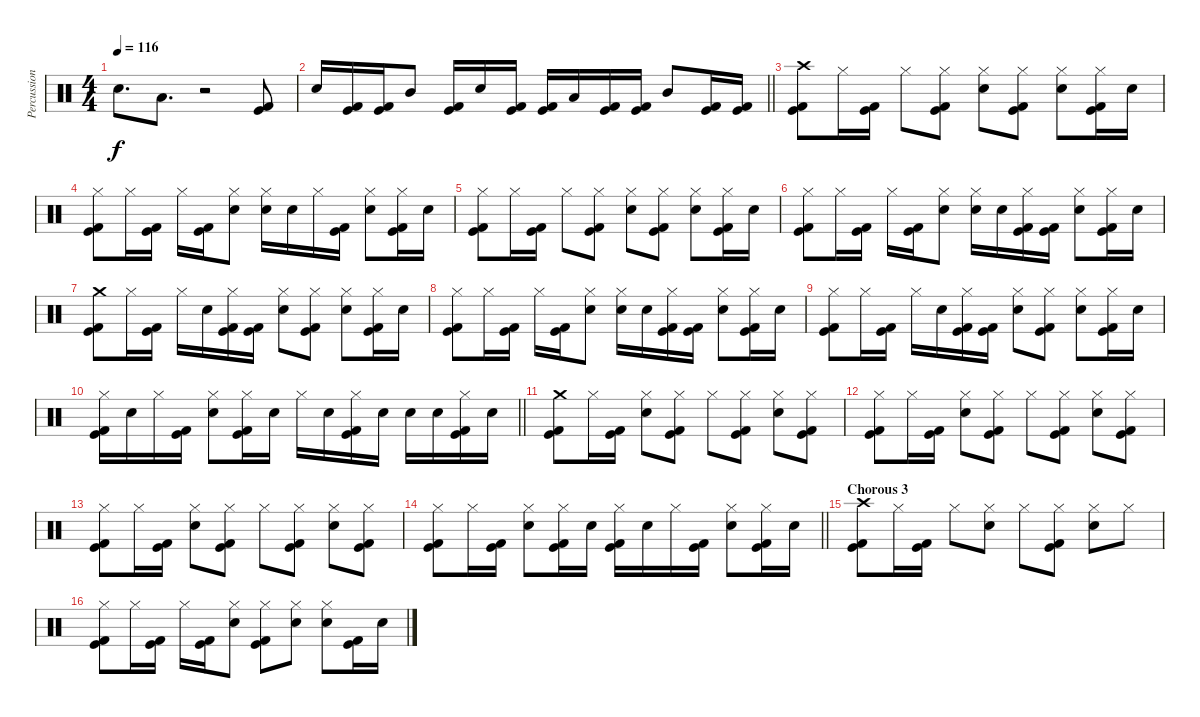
\track ("Percussion" "Percussion") {instrument percussion}
\staff {score}
\articulation defaults
\ts (4 4)
\tempo 116
\clef neutral
\ks c "Electric Snare (hit)".8{d dy f} "Low Tom (hit)".8{d}
r.2 ("Kick (hit)" "Kick (hit) 2").8 |
\barLineRight lightlight "Electric Snare (hit)".16
("Kick (hit)" "Kick (hit) 2").16 ("Kick (hit)" "Kick (hit) 2").16 "Mid Tom (hit)".8 ("Kick (hit)" "Kick (hit) 2").16 "Electric Snare (hit)".16 ("Kick (hit)" "Kick (hit) 2").16 ("Kick (hit)" "Kick (hit) 2").16 "Low Tom (hit)".16 ("Kick (hit)" "Kick (hit) 2").16 ("Kick (hit)" "Kick (hit) 2").16 "Mid Tom (hit)".8 ("Kick (hit)" "Kick (hit) 2").16 ("Kick (hit)" "Kick (hit) 2").16 |
\section ("" "")
("Crash high (hit)" "Kick (hit)" "Kick (hit) 2").8 "Hi-Hat (closed)".16 ("Kick (hit)" "Kick (hit) 2").16 "Hi-Hat (closed)".8 ("Hi-Hat (closed)" "Kick (hit)" "Kick (hit) 2").8 ("Hi-Hat (closed)" "Electric Snare (hit)").8 ("Hi-Hat (closed)" "Kick (hit)" "Kick (hit) 2").8 ("Hi-Hat (closed)" "Electric Snare (hit)").8 ("Hi-Hat (closed)" "Kick (hit)" "Kick (hit) 2").16 "Electric Snare (hit)".16 |
("Hi-Hat (closed)" "Kick (hit)" "Kick (hit) 2").8 "Hi-Hat (closed)".16 ("Kick (hit)" "Kick (hit) 2").16 "Hi-Hat (closed)".16 ("Kick (hit)" "Kick (hit) 2").16 ("Hi-Hat (closed)" "Electric Snare (hit)").8 ("Hi-Hat (closed)" "Electric Snare (hit)").16 "Electric Snare (hit)".16 "Hi-Hat (closed)".16 ("Kick (hit)" "Kick (hit) 2").16 ("Hi-Hat (closed)" "Electric Snare (hit)").8 ("Hi-Hat (closed)" "Kick (hit)" "Kick (hit) 2").16 "Electric Snare (hit)".16 |
("Hi-Hat (closed)" "Kick (hit)" "Kick (hit) 2").8 "Hi-Hat (closed)".16 ("Kick (hit)" "Kick (hit) 2").16 "Hi-Hat (closed)".8 ("Hi-Hat (closed)" "Kick (hit)" "Kick (hit) 2").8 ("Hi-Hat (closed)" "Electric Snare (hit)").8 ("Hi-Hat (closed)" "Kick (hit)" "Kick (hit) 2").8 ("Hi-Hat (closed)" "Electric Snare (hit)").8 ("Hi-Hat (closed)" "Kick (hit)" "Kick (hit) 2").16 "Electric Snare (hit)".16 |
("Hi-Hat (closed)" "Kick (hit)" "Kick (hit) 2").8 "Hi-Hat (closed)".16 ("Kick (hit)" "Kick (hit) 2").16 "Hi-Hat (closed)".16 ("Kick (hit)" "Kick (hit) 2").16 ("Hi-Hat (closed)" "Electric Snare (hit)").8 ("Hi-Hat (closed)" "Electric Snare (hit)").16 "Electric Snare (hit)".16 ("Hi-Hat (closed)" "Kick (hit)" "Kick (hit) 2").16 ("Kick (hit)" "Kick (hit) 2").16 ("Hi-Hat (closed)" "Electric Snare (hit)").8 ("Hi-Hat (closed)" "Kick (hit)" "Kick (hit) 2").16 "Electric Snare (hit)".16 |
("Crash medium (hit)" "Kick (hit)" "Kick (hit) 2").8 "Hi-Hat (closed)".16 ("Kick (hit)" "Kick (hit) 2").16 "Hi-Hat (closed)".16 "Electric Snare (hit)".16 ("Hi-Hat (closed)" "Kick (hit)" "Kick (hit) 2").16 ("Kick (hit)" "Kick (hit) 2").16 ("Hi-Hat (closed)" "Electric Snare (hit)").8 ("Hi-Hat (closed)" "Kick (hit)" "Kick (hit) 2").8 ("Hi-Hat (closed)" "Electric Snare (hit)").8 ("Hi-Hat (closed)" "Kick (hit)" "Kick (hit) 2").16 "Electric Snare (hit)".16 |
("Hi-Hat (closed)" "Kick (hit)" "Kick (hit) 2").8 "Hi-Hat (closed)".16 ("Kick (hit)" "Kick (hit) 2").16 "Hi-Hat (closed)".16 ("Kick (hit)" "Kick (hit) 2").16 ("Hi-Hat (closed)" "Electric Snare (hit)").8 ("Hi-Hat (closed)" "Electric Snare (hit)").16 "Electric Snare (hit)".16 ("Hi-Hat (closed)" "Kick (hit)" "Kick (hit) 2").16 ("Kick (hit)" "Kick (hit) 2").16 ("Hi-Hat (closed)" "Electric Snare (hit)").8 ("Hi-Hat (closed)" "Kick (hit)" "Kick (hit) 2").16 "Electric Snare (hit)".16 |
("Hi-Hat (closed)" "Kick (hit)" "Kick (hit) 2").8 "Hi-Hat (closed)".16 ("Kick (hit)" "Kick (hit) 2").16 "Hi-Hat (closed)".16 "Electric Snare (hit)".16 ("Hi-Hat (closed)" "Kick (hit)" "Kick (hit) 2").16 ("Kick (hit)" "Kick (hit) 2").16 ("Hi-Hat (closed)" "Electric Snare (hit)").8 ("Hi-Hat (closed)" "Kick (hit)" "Kick (hit) 2").8 ("Hi-Hat (closed)" "Electric Snare (hit)").8 ("Hi-Hat (closed)" "Kick (hit)" "Kick (hit) 2").16 "Electric Snare (hit)".16 |
\barLineRight lightlight
("Hi-Hat (closed)" "Kick (hit)" "Kick (hit) 2").16 "Electric Snare (hit)".16 "Hi-Hat (closed)".16 ("Kick (hit)" "Kick (hit) 2").16 ("Hi-Hat (closed)" "Electric Snare (hit)").8 ("Hi-Hat (closed)" "Kick (hit)" "Kick (hit) 2").16 "Electric Snare (hit)".16 "Hi-Hat (closed)".16 "Electric Snare (hit)".16 ("Hi-Hat (closed)" "Kick (hit)" "Kick (hit) 2").16 "Electric Snare (hit)".16 "Electric Snare (hit)".16 "Electric Snare (hit)".16 ("Hi-Hat (closed)" "Kick (hit)" "Kick (hit) 2").16 "Electric Snare (hit)".16 |
\section ("" "")
("Crash medium (hit)" "Kick (hit)" "Kick (hit) 2").8 "Hi-Hat (closed)".16 ("Kick (hit)" "Kick (hit) 2").16 ("Hi-Hat (closed)" "Electric Snare (hit)").8 ("Hi-Hat (closed)" "Kick (hit)" "Kick (hit) 2").8 "Hi-Hat (closed)".8 ("Hi-Hat (closed)" "Kick (hit)" "Kick (hit) 2").8 ("Hi-Hat (closed)" "Electric Snare (hit)").8 ("Hi-Hat (closed)" "Kick (hit)" "Kick (hit) 2").8 |
("Hi-Hat (closed)" "Kick (hit)" "Kick (hit) 2").8 "Hi-Hat (closed)".16 ("Kick (hit)" "Kick (hit) 2").16 ("Hi-Hat (closed)" "Electric Snare (hit)").8 ("Hi-Hat (closed)" "Kick (hit)" "Kick (hit) 2").8 "Hi-Hat (closed)".8 ("Hi-Hat (closed)" "Kick (hit)" "Kick (hit) 2").8 ("Hi-Hat (closed)" "Electric Snare (hit)").8 ("Hi-Hat (closed)" "Kick (hit)" "Kick (hit) 2").8 |
("Hi-Hat (closed)" "Kick (hit)" "Kick (hit) 2").8 "Hi-Hat (closed)".16 ("Kick (hit)" "Kick (hit) 2").16 ("Hi-Hat (closed)" "Electric Snare (hit)").8 ("Hi-Hat (closed)" "Kick (hit)" "Kick (hit) 2").8 "Hi-Hat (closed)".8 ("Hi-Hat (closed)" "Kick (hit)" "Kick (hit) 2").8 ("Hi-Hat (closed)" "Electric Snare (hit)").8 ("Hi-Hat (closed)" "Kick (hit)" "Kick (hit) 2").8 |
\barLineRight lightlight
("Hi-Hat (closed)" "Kick (hit)" "Kick (hit) 2").8 "Hi-Hat (closed)".16 ("Kick (hit)" "Kick (hit) 2").16 ("Hi-Hat (closed)" "Electric Snare (hit)").8 ("Hi-Hat (closed)" "Kick (hit)" "Kick (hit) 2").16 "Electric Snare (hit)".16 ("Hi-Hat (closed)" "Kick (hit)" "Kick (hit) 2").16 "Electric Snare (hit)".16 "Hi-Hat (closed)".16 ("Kick (hit)" "Kick (hit) 2").16 ("Hi-Hat (closed)" "Electric Snare (hit)").8 ("Hi-Hat (closed)" "Kick (hit)" "Kick (hit) 2").16 "Electric Snare (hit)".16 |
\section ("" "Chorous 3")
("Crash high (hit)" "Kick (hit)" "Kick (hit) 2").8 "Hi-Hat (closed)".16 ("Kick (hit)" "Kick (hit) 2").16 "Hi-Hat (closed)".8 ("Hi-Hat (closed)" "Electric Snare (hit)").8 "Hi-Hat (closed)".8 ("Hi-Hat (closed)" "Kick (hit)" "Kick (hit) 2").8 ("Hi-Hat (closed)" "Electric Snare (hit)").8 "Hi-Hat (closed)".8 |
("Hi-Hat (closed)" "Kick (hit)" "Kick (hit) 2").8 "Hi-Hat (closed)".16 ("Kick (hit)" "Kick (hit) 2").16 "Hi-Hat (closed)".16 ("Kick (hit)" "Kick (hit) 2").16 ("Hi-Hat (closed)" "Electric Snare (hit)").8 ("Hi-Hat (closed)" "Kick (hit)" "Kick (hit) 2").8 ("Hi-Hat (closed)" "Electric Snare (hit)").8 ("Hi-Hat (closed)" "Electric Snare (hit)").8 ("Kick (hit)" "Kick (hit) 2").16 "Electric Snare (hit)".16
